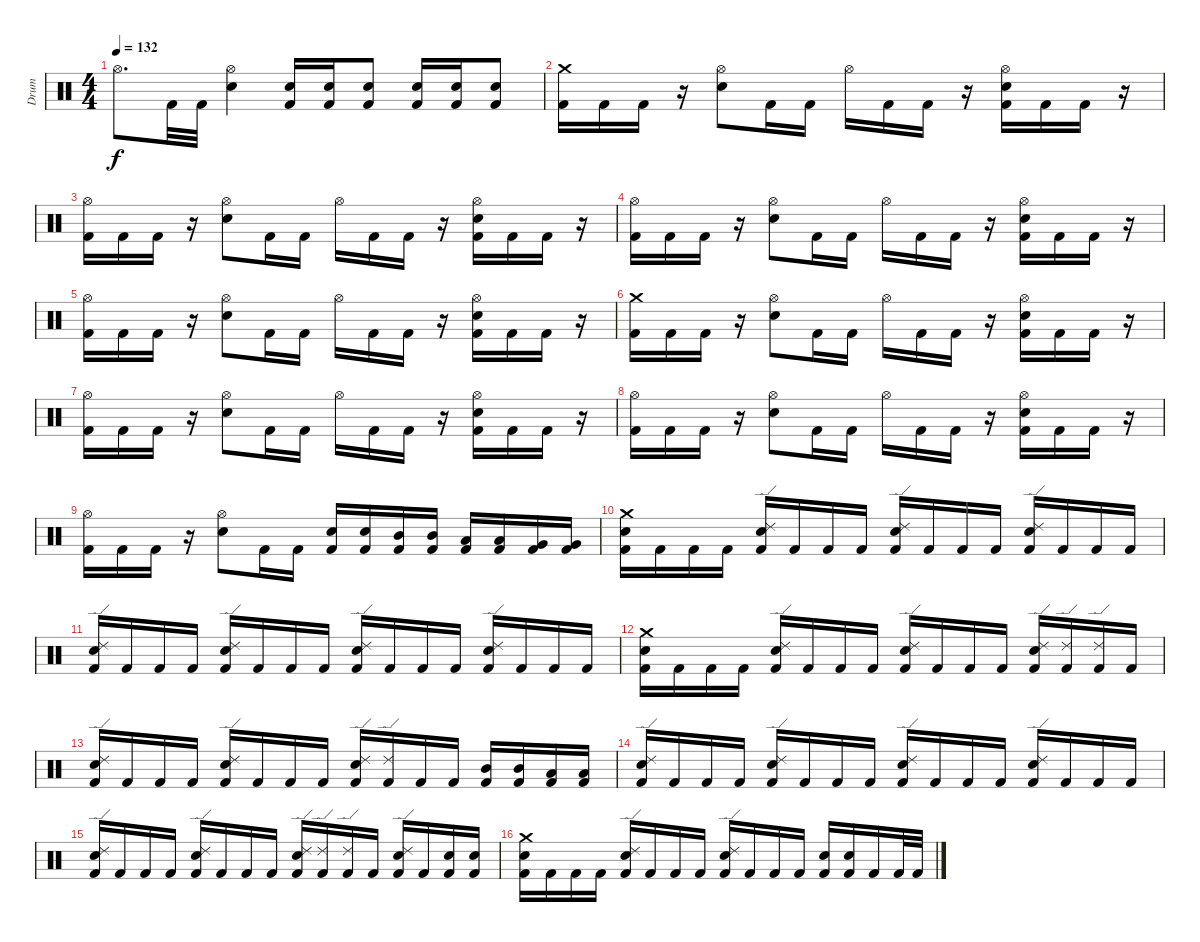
\track ("Drum" "Drum") {instrument percussion}
\staff {score}
\articulation defaults
\ts (4 4)
\tempo 132
\clef neutral
\ks c "Hi-Hat (open)".8{d dy f} "Kick (hit) 2".32 "Kick (hit) 2".32
("Hi-Hat (open)" "Snare (hit) 2").4 ("Snare (hit) 2" "Kick (hit) 2").16 ("Snare (hit) 2" "Kick (hit) 2").16 ("Snare (hit) 2" "Kick (hit) 2").8 ("Snare (hit) 2" "Kick (hit) 2").16 ("Snare (hit) 2" "Kick (hit) 2").16 ("Snare (hit) 2" "Kick (hit) 2").8 |
("Crash medium (hit)" "Kick (hit) 2").16 "Kick (hit) 2".16 "Kick (hit) 2".16 r.16 ("Hi-Hat (open)" "Snare (hit) 2").8 "Kick (hit) 2".16 "Kick (hit) 2".16 "Hi-Hat (open)".16 "Kick (hit) 2".16 "Kick (hit) 2".16 r.16 ("Hi-Hat (open)" "Snare (hit) 2" "Kick (hit) 2").16 "Kick (hit) 2".16 "Kick (hit) 2".16 r.16 |
("Hi-Hat (open)" "Kick (hit) 2").16 "Kick (hit) 2".16 "Kick (hit) 2".16 r.16 ("Hi-Hat (open)" "Snare (hit) 2").8 "Kick (hit) 2".16 "Kick (hit) 2".16 "Hi-Hat (open)".16 "Kick (hit) 2".16 "Kick (hit) 2".16 r.16 ("Hi-Hat (open)" "Snare (hit) 2" "Kick (hit) 2").16 "Kick (hit) 2".16 "Kick (hit) 2".16 r.16 |
("Hi-Hat (open)" "Kick (hit) 2").16 "Kick (hit) 2".16 "Kick (hit) 2".16 r.16 ("Hi-Hat (open)" "Snare (hit) 2").8 "Kick (hit) 2".16 "Kick (hit) 2".16 "Hi-Hat (open)".16 "Kick (hit) 2".16 "Kick (hit) 2".16 r.16 ("Hi-Hat (open)" "Snare (hit) 2" "Kick (hit) 2").16 "Kick (hit) 2".16 "Kick (hit) 2".16 r.16 |
("Hi-Hat (open)" "Kick (hit) 2").16 "Kick (hit) 2".16 "Kick (hit) 2".16 r.16 ("Hi-Hat (open)" "Snare (hit) 2").8 "Kick (hit) 2".16 "Kick (hit) 2".16 "Hi-Hat (open)".16 "Kick (hit) 2".16 "Kick (hit) 2".16 r.16 ("Hi-Hat (open)" "Snare (hit) 2" "Kick (hit) 2").16 "Kick (hit) 2".16 "Kick (hit) 2".16 r.16 |
("Crash medium (hit)" "Kick (hit) 2").16 "Kick (hit) 2".16 "Kick (hit) 2".16 r.16 ("Hi-Hat (open)" "Snare (hit) 2").8 "Kick (hit) 2".16 "Kick (hit) 2".16 "Hi-Hat (open)".16 "Kick (hit) 2".16 "Kick (hit) 2".16 r.16 ("Hi-Hat (open)" "Snare (hit) 2" "Kick (hit) 2").16 "Kick (hit) 2".16 "Kick (hit) 2".16 r.16 |
("Hi-Hat (open)" "Kick (hit) 2").16 "Kick (hit) 2".16 "Kick (hit) 2".16 r.16 ("Hi-Hat (open)" "Snare (hit) 2").8 "Kick (hit) 2".16 "Kick (hit) 2".16 "Hi-Hat (open)".16 "Kick (hit) 2".16 "Kick (hit) 2".16 r.16 ("Hi-Hat (open)" "Snare (hit) 2" "Kick (hit) 2").16 "Kick (hit) 2".16 "Kick (hit) 2".16 r.16 |
("Hi-Hat (open)" "Kick (hit) 2").16 "Kick (hit) 2".16 "Kick (hit) 2".16 r.16 ("Hi-Hat (open)" "Snare (hit) 2").8 "Kick (hit) 2".16 "Kick (hit) 2".16 "Hi-Hat (open)".16 "Kick (hit) 2".16 "Kick (hit) 2".16 r.16 ("Hi-Hat (open)" "Snare (hit) 2" "Kick (hit) 2").16 "Kick (hit) 2".16 "Kick (hit) 2".16 r.16 |
("Hi-Hat (open)" "Kick (hit) 2").16 "Kick (hit) 2".16 "Kick (hit) 2".16 r.16 ("Hi-Hat (open)" "Snare (hit) 2").8 "Kick (hit) 2".16 "Kick (hit) 2".16 ("Snare (hit) 2" "Kick (hit) 2").16 ("Snare (hit) 2" "Kick (hit) 2").16 ("Mid Tom (hit)" "Kick (hit) 2").16 ("Mid Tom (hit)" "Kick (hit) 2").16 ("Low Tom (hit)" "Kick (hit) 2").16 ("Low Tom (hit)" "Kick (hit) 2").16 ("Very Low Tom (hit)" "Kick (hit) 2").16 ("Very Low Tom (hit)" "Kick (hit) 2").16 |
("Crash medium (hit)" "Snare (hit) 2" "Kick (hit) 2").16 "Kick (hit) 2".16 "Kick (hit) 2".16 "Kick (hit) 2".16 ("Ride (edge) 2" "Snare (hit) 2" "Kick (hit) 2").16 "Kick (hit) 2".16 "Kick (hit) 2".16 "Kick (hit) 2".16 ("Ride (edge) 2" "Snare (hit) 2" "Kick (hit) 2").16 "Kick (hit) 2".16 "Kick (hit) 2".16 "Kick (hit) 2".16 ("Ride (edge) 2" "Snare (hit) 2" "Kick (hit) 2").16 "Kick (hit) 2".16 "Kick (hit) 2".16 "Kick (hit) 2".16 |
("Ride (edge) 2" "Snare (hit) 2" "Kick (hit) 2").16 "Kick (hit) 2".16 "Kick (hit) 2".16 "Kick (hit) 2".16 ("Ride (edge) 2" "Snare (hit) 2" "Kick (hit) 2").16 "Kick (hit) 2".16 "Kick (hit) 2".16 "Kick (hit) 2".16 ("Ride (edge) 2" "Snare (hit) 2" "Kick (hit) 2").16 "Kick (hit) 2".16 "Kick (hit) 2".16 "Kick (hit) 2".16 ("Ride (edge) 2" "Snare (hit) 2" "Kick (hit) 2").16 "Kick (hit) 2".16 "Kick (hit) 2".16 "Kick (hit) 2".16 |
("Crash medium (hit)" "Snare (hit) 2" "Kick (hit) 2").16 "Kick (hit) 2".16 "Kick (hit) 2".16 "Kick (hit) 2".16 ("Ride (edge) 2" "Snare (hit) 2" "Kick (hit) 2").16 "Kick (hit) 2".16 "Kick (hit) 2".16 "Kick (hit) 2".16 ("Ride (edge) 2" "Snare (hit) 2" "Kick (hit) 2").16 "Kick (hit) 2".16 "Kick (hit) 2".16 "Kick (hit) 2".16 ("Ride (edge) 2" "Snare (hit) 2" "Kick (hit) 2").16 ("Ride (edge) 2" "Kick (hit) 2").16 ("Ride (edge) 2" "Kick (hit) 2").16 "Kick (hit) 2".16 |
("Ride (edge) 2" "Snare (hit) 2" "Kick (hit) 2").16 "Kick (hit) 2".16 "Kick (hit) 2".16 "Kick (hit) 2".16 ("Ride (edge) 2" "Snare (hit) 2" "Kick (hit) 2").16 "Kick (hit) 2".16 "Kick (hit) 2".16 "Kick (hit) 2".16 ("Ride (edge) 2" "Snare (hit) 2" "Kick (hit) 2").16 ("Ride (edge) 2" "Kick (hit) 2").16 "Kick (hit) 2".16 "Kick (hit) 2".16 ("Mid Tom (hit)" "Kick (hit) 2").16 ("Mid Tom (hit)" "Kick (hit) 2").16 ("Low Tom (hit)" "Kick (hit) 2").16 ("Low Tom (hit)" "Kick (hit) 2").16 |
("Ride (edge) 2" "Snare (hit) 2" "Kick (hit) 2").16 "Kick (hit) 2".16 "Kick (hit) 2".16 "Kick (hit) 2".16 ("Ride (edge) 2" "Snare (hit) 2" "Kick (hit) 2").16 "Kick (hit) 2".16 "Kick (hit) 2".16 "Kick (hit) 2".16 ("Ride (edge) 2" "Snare (hit) 2" "Kick (hit) 2").16 "Kick (hit) 2".16 "Kick (hit) 2".16 "Kick (hit) 2".16 ("Ride (edge) 2" "Snare (hit) 2" "Kick (hit) 2").16 "Kick (hit) 2".16 "Kick (hit) 2".16 "Kick (hit) 2".16 |
("Ride (edge) 2" "Snare (hit) 2" "Kick (hit) 2").16 "Kick (hit) 2".16 "Kick (hit) 2".16 "Kick (hit) 2".16 ("Ride (edge) 2" "Snare (hit) 2" "Kick (hit) 2").16 "Kick (hit) 2".16 "Kick (hit) 2".16 "Kick (hit) 2".16 ("Ride (edge) 2" "Snare (hit) 2" "Kick (hit) 2").16 ("Ride (edge) 2" "Kick (hit) 2").16 ("Ride (edge) 2" "Kick (hit) 2").16 "Kick (hit) 2".16 ("Ride (edge) 2" "Snare (hit) 2" "Kick (hit) 2").16 "Kick (hit) 2".16 ("Snare (hit) 2" "Kick (hit) 2").16 ("Snare (hit) 2" "Kick (hit) 2").16 |
("Crash medium (hit)" "Snare (hit) 2" "Kick (hit) 2").16 "Kick (hit) 2".16 "Kick (hit) 2".16 "Kick (hit) 2".16 ("Ride (edge) 2" "Snare (hit) 2" "Kick (hit) 2").16 "Kick (hit) 2".16 "Kick (hit) 2".16 "Kick (hit) 2".16 ("Ride (edge) 2" "Snare (hit) 2" "Kick (hit) 2").16 "Kick (hit) 2".16 "Kick (hit) 2".16 "Kick (hit) 2".16 ("Snare (hit) 2" "Kick (hit) 2").16 ("Snare (hit) 2" "Kick (hit) 2").16 "Kick (hit) 2".16 "Kick (hit) 2".32 "Kick (hit) 2".32
